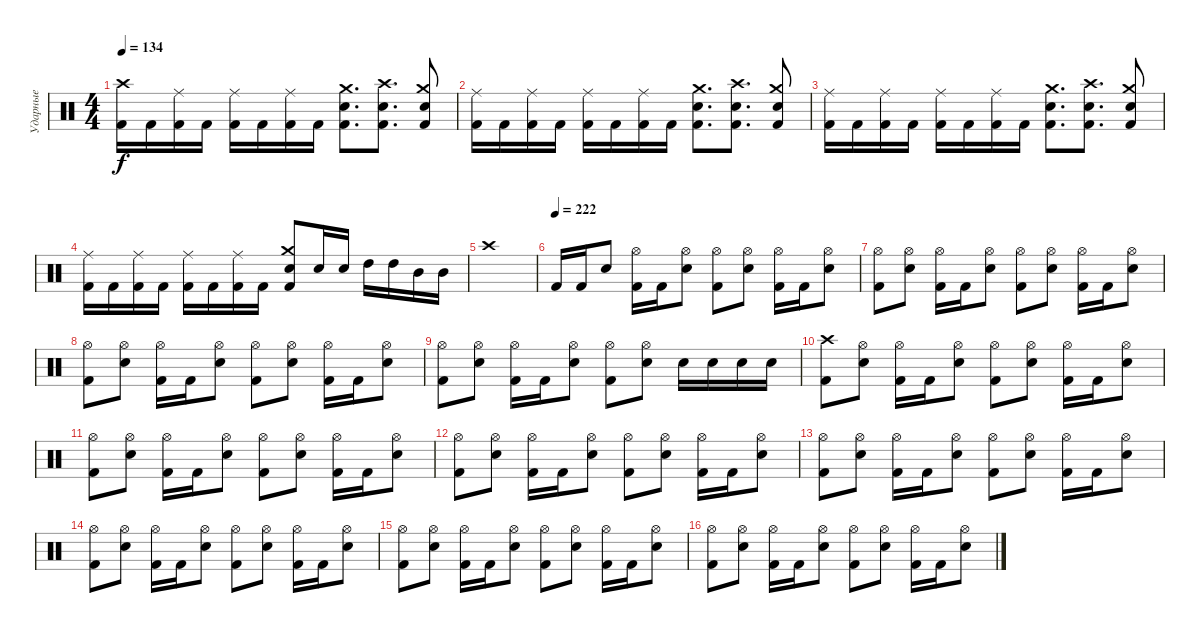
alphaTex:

\track ("Ударные" "Ударные") {instrument percussion}
\staff {score}
\articulation defaults
\ts (4 4)
\tempo 134
\clef neutral
\ks c
("Crash high (hit)" "Kick (hit) 2").16{dy f} "Kick (hit) 2".16 ("Ride (middle)" "Kick (hit) 2").16 "Kick (hit) 2".16 ("Ride (middle)" "Kick (hit) 2").16 "Kick (hit) 2".16 ("Ride (middle)" "Kick (hit) 2").16 "Kick (hit) 2".16 ("Crash medium (hit)" "Electric Snare (hit)" "Kick (hit) 2").8{d} ("Crash high (hit)" "Electric Snare (hit)" "Kick (hit) 2").8{d} ("Crash medium (hit)" "Electric Snare (hit)" "Kick (hit) 2").8 |
("Ride (middle)" "Kick (hit) 2").16 "Kick (hit) 2".16 ("Ride (middle)" "Kick (hit) 2").16 "Kick (hit) 2".16 ("Ride (middle)" "Kick (hit) 2").16 "Kick (hit) 2".16 ("Ride (middle)" "Kick (hit) 2").16 "Kick (hit) 2".16 ("Crash medium (hit)" "Electric Snare (hit)" "Kick (hit) 2").8{d} ("Crash high (hit)" "Electric Snare (hit)" "Kick (hit) 2").8{d} ("Crash medium (hit)" "Electric Snare (hit)" "Kick (hit) 2").8 |
("Ride (middle)" "Kick (hit) 2").16 "Kick (hit) 2".16 ("Ride (middle)" "Kick (hit) 2").16 "Kick (hit) 2".16 ("Ride (middle)" "Kick (hit) 2").16 "Kick (hit) 2".16 ("Ride (middle)" "Kick (hit) 2").16 "Kick (hit) 2".16 ("Crash medium (hit)" "Electric Snare (hit)" "Kick (hit) 2").8{d} ("Crash high (hit)" "Electric Snare (hit)" "Kick (hit) 2").8{d} ("Crash medium (hit)" "Electric Snare (hit)" "Kick (hit) 2").8 |
("Ride (middle)" "Kick (hit) 2").16 "Kick (hit) 2".16 ("Ride (middle)" "Kick (hit) 2").16 "Kick (hit) 2".16 ("Ride (middle)" "Kick (hit) 2").16 "Kick (hit) 2".16 ("Ride (middle)" "Kick (hit) 2").16 "Kick (hit) 2".16 ("Crash medium (hit)" "Electric Snare (hit)" "Kick (hit) 2").8 "Electric Snare (hit)".16 "Electric Snare (hit)".16 "High Tom (hit)".16 "High Tom (hit)".16 "Mid Tom (hit)".16 "Mid Tom (hit)".16 |
"Crash high (hit)".1 |
\tempo (222)
"Kick (hit) 2".16 "Kick (hit) 2".16 "Electric Snare (hit)".8 ("Hi-Hat (open)" "Kick (hit) 2").16 "Kick (hit) 2".16 ("Hi-Hat (open)" "Electric Snare (hit)").8 ("Hi-Hat (open)" "Kick (hit) 2").8 ("Hi-Hat (open)" "Electric Snare (hit)").8 ("Hi-Hat (open)" "Kick (hit) 2").16 "Kick (hit) 2".16 ("Hi-Hat (open)" "Electric Snare (hit)").8 |
("Hi-Hat (open)" "Kick (hit) 2").8 ("Hi-Hat (open)" "Electric Snare (hit)").8 ("Hi-Hat (open)" "Kick (hit) 2").16 "Kick (hit) 2".16 ("Hi-Hat (open)" "Electric Snare (hit)").8 ("Hi-Hat (open)" "Kick (hit) 2").8 ("Hi-Hat (open)" "Electric Snare (hit)").8 ("Hi-Hat (open)" "Kick (hit) 2").16 "Kick (hit) 2".16 ("Hi-Hat (open)" "Electric Snare (hit)").8 |
("Hi-Hat (open)" "Kick (hit) 2").8 ("Hi-Hat (open)" "Electric Snare (hit)").8 ("Hi-Hat (open)" "Kick (hit) 2").16 "Kick (hit) 2".16 ("Hi-Hat (open)" "Electric Snare (hit)").8 ("Hi-Hat (open)" "Kick (hit) 2").8 ("Hi-Hat (open)" "Electric Snare (hit)").8 ("Hi-Hat (open)" "Kick (hit) 2").16 "Kick (hit) 2".16 ("Hi-Hat (open)" "Electric Snare (hit)").8 |
("Hi-Hat (open)" "Kick (hit) 2").8 ("Hi-Hat (open)" "Electric Snare (hit)").8 ("Hi-Hat (open)" "Kick (hit) 2").16 "Kick (hit) 2".16 ("Hi-Hat (open)" "Electric Snare (hit)").8 ("Hi-Hat (open)" "Kick (hit) 2").8 ("Hi-Hat (open)" "Electric Snare (hit)").8 "Electric Snare (hit)".16 "Electric Snare (hit)".16 "Electric Snare (hit)".16 "Electric Snare (hit)".16 |
("Crash high (hit)" "Kick (hit) 2").8 ("Hi-Hat (open)" "Electric Snare (hit)").8 ("Hi-Hat (open)" "Kick (hit) 2").16 "Kick (hit) 2".16 ("Hi-Hat (open)" "Electric Snare (hit)").8 ("Hi-Hat (open)" "Kick (hit) 2").8 ("Hi-Hat (open)" "Electric Snare (hit)").8 ("Hi-Hat (open)" "Kick (hit) 2").16 "Kick (hit) 2".16 ("Hi-Hat (open)" "Electric Snare (hit)").8 |
("Hi-Hat (open)" "Kick (hit) 2").8 ("Hi-Hat (open)" "Electric Snare (hit)").8 ("Hi-Hat (open)" "Kick (hit) 2").16 "Kick (hit) 2".16 ("Hi-Hat (open)" "Electric Snare (hit)").8 ("Hi-Hat (open)" "Kick (hit) 2").8 ("Hi-Hat (open)" "Electric Snare (hit)").8 ("Hi-Hat (open)" "Kick (hit) 2").16 "Kick (hit) 2".16 ("Hi-Hat (open)" "Electric Snare (hit)").8 |
("Hi-Hat (open)" "Kick (hit) 2").8 ("Hi-Hat (open)" "Electric Snare (hit)").8 ("Hi-Hat (open)" "Kick (hit) 2").16 "Kick (hit) 2".16 ("Hi-Hat (open)" "Electric Snare (hit)").8 ("Hi-Hat (open)" "Kick (hit) 2").8 ("Hi-Hat (open)" "Electric Snare (hit)").8 ("Hi-Hat (open)" "Kick (hit) 2").16 "Kick (hit) 2".16 ("Hi-Hat (open)" "Electric Snare (hit)").8 |
("Hi-Hat (open)" "Kick (hit) 2").8 ("Hi-Hat (open)" "Electric Snare (hit)").8 ("Hi-Hat (open)" "Kick (hit) 2").16 "Kick (hit) 2".16 ("Hi-Hat (open)" "Electric Snare (hit)").8 ("Hi-Hat (open)" "Kick (hit) 2").8 ("Hi-Hat (open)" "Electric Snare (hit)").8 ("Hi-Hat (open)" "Kick (hit) 2").16 "Kick (hit) 2".16 ("Hi-Hat (open)" "Electric Snare (hit)").8 |
("Hi-Hat (open)" "Kick (hit) 2").8 ("Hi-Hat (open)" "Electric Snare (hit)").8 ("Hi-Hat (open)" "Kick (hit) 2").16 "Kick (hit) 2".16 ("Hi-Hat (open)" "Electric Snare (hit)").8 ("Hi-Hat (open)" "Kick (hit) 2").8 ("Hi-Hat (open)" "Electric Snare (hit)").8 ("Hi-Hat (open)" "Kick (hit) 2").16 "Kick (hit) 2".16 ("Hi-Hat (open)" "Electric Snare (hit)").8 |
("Hi-Hat (open)" "Kick (hit) 2").8 ("Hi-Hat (open)" "Electric Snare (hit)").8 ("Hi-Hat (open)" "Kick (hit) 2").16 "Kick (hit) 2".16 ("Hi-Hat (open)" "Electric Snare (hit)").8 ("Hi-Hat (open)" "Kick (hit) 2").8 ("Hi-Hat (open)" "Electric Snare (hit)").8 ("Hi-Hat (open)" "Kick (hit) 2").16 "Kick (hit) 2".16 ("Hi-Hat (open)" "Electric Snare (hit)").8 |
("Hi-Hat (open)" "Kick (hit) 2").8 ("Hi-Hat (open)" "Electric Snare (hit)").8 ("Hi-Hat (open)" "Kick (hit) 2").16 "Kick (hit) 2".16 ("Hi-Hat (open)" "Electric Snare (hit)").8 ("Hi-Hat (open)" "Kick (hit) 2").8 ("Hi-Hat (open)" "Electric Snare (hit)").8 ("Hi-Hat (open)" "Kick (hit) 2").16 "Kick (hit) 2".16 ("Hi-Hat (open)" "Electric Snare (hit)").8
